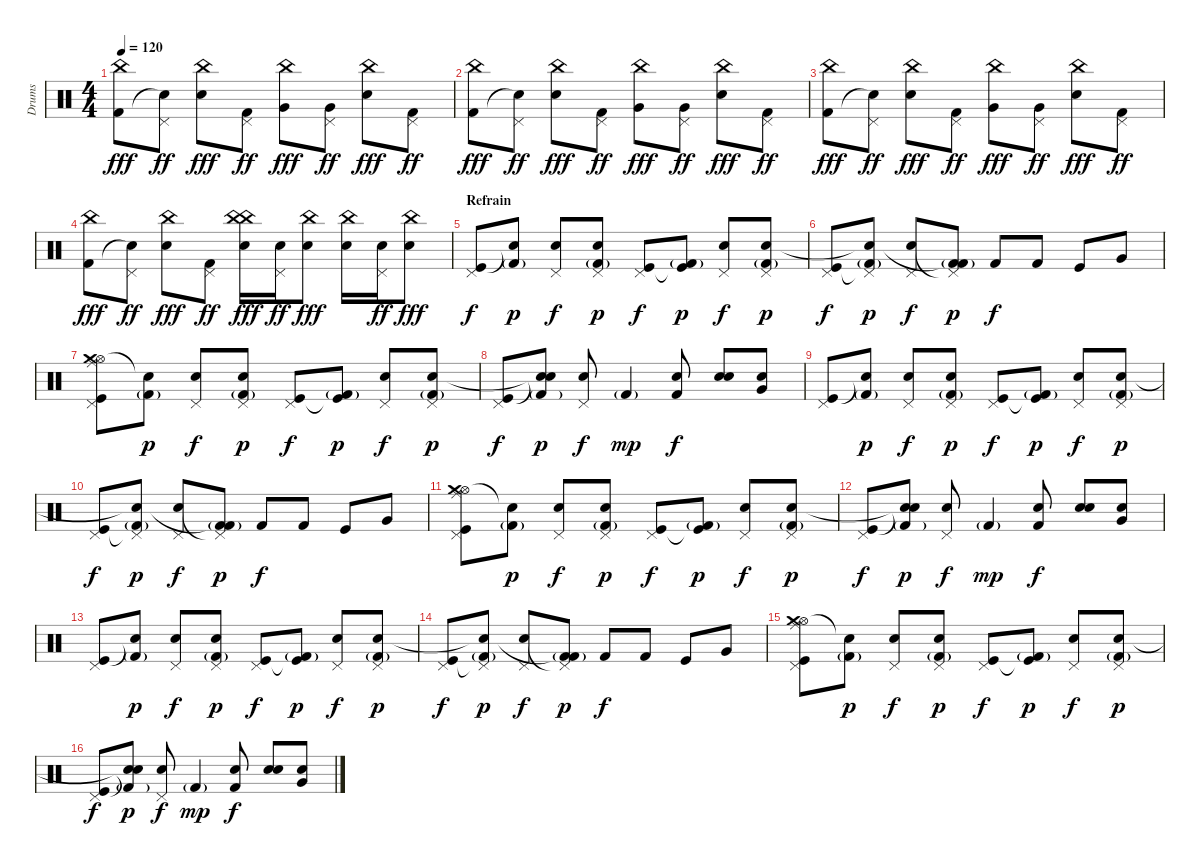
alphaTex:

\track ("Drums" "Drums") {instrument percussion}
\staff {score}
\articulation defaults
\ts (4 4)
\tempo 120
\clef neutral
\ks c
("China (hit)" "Kick (hit) 2").8{dy fff} ("Pedal Hi-Hat (hit)" "Snare (hit) 2"{t}).8{dy ff} ("China (hit)" "Snare (hit) 2").8{dy fff} ("Pedal Hi-Hat (hit)" "Kick (hit) 2").8{dy ff} ("China (hit)" "Very Low Tom (hit)").8{dy fff} ("Pedal Hi-Hat (hit)" "Very Low Tom (hit)").8{dy ff} ("China (hit)" "Snare (hit) 2").8{dy fff} ("Pedal Hi-Hat (hit)" "Kick (hit) 2").8{dy ff} |
("China (hit)" "Kick (hit) 2").8{dy fff} ("Pedal Hi-Hat (hit)" "Snare (hit) 2"{t}).8{dy ff} ("China (hit)" "Snare (hit) 2").8{dy fff} ("Pedal Hi-Hat (hit)" "Kick (hit) 2").8{dy ff} ("China (hit)" "Very Low Tom (hit)").8{dy fff} ("Pedal Hi-Hat (hit)" "Very Low Tom (hit)").8{dy ff} ("China (hit)" "Snare (hit) 2").8{dy fff} ("Pedal Hi-Hat (hit)" "Kick (hit) 2").8{dy ff} |
("China (hit)" "Kick (hit) 2").8{dy fff} ("Pedal Hi-Hat (hit)" "Snare (hit) 2"{t}).8{dy ff} ("China (hit)" "Snare (hit) 2").8{dy fff} ("Pedal Hi-Hat (hit)" "Kick (hit) 2").8{dy ff} ("China (hit)" "Very Low Tom (hit)").8{dy fff} ("Pedal Hi-Hat (hit)" "Very Low Tom (hit)").8{dy ff} ("China (hit)" "Snare (hit) 2").8{dy fff} ("Pedal Hi-Hat (hit)" "Kick (hit) 2").8{dy ff} |
("China (hit)" "Kick (hit) 2").8{dy fff} ("Pedal Hi-Hat (hit)" "Snare (hit) 2"{t}).8{dy ff} ("China (hit)" "Snare (hit) 2").8{dy fff} ("Pedal Hi-Hat (hit)" "Kick (hit) 2").8{dy ff} ("China (hit)" "China (hit)" "Snare (hit) 2").16{dy fff} ("Pedal Hi-Hat (hit)" "Snare (hit) 2").16{dy ff} ("China (hit)" "Snare (hit) 2").8{dy fff} ("China (hit)" "Snare (hit) 2").16 ("Pedal Hi-Hat (hit)" "Snare (hit) 2").16{dy ff} ("China (hit)" "Snare (hit) 2").8{dy fff} |
\section ("" "Refrain")
("Pedal Hi-Hat (hit)" "Kick (hit)").8{dy f} ("Kick (hit) 2"{g} "Snare (hit) 2"{t}).8{dy p} ("Pedal Hi-Hat (hit)" "Snare (hit) 2").8{dy f} ("Kick (hit) 2"{g} "Pedal Hi-Hat (hit)" "Snare (hit) 2").8{dy p} ("Pedal Hi-Hat (hit)" "Kick (hit)").8{dy f} ("Kick (hit) 2"{g} "Kick (hit)"{t}).8{dy p} ("Pedal Hi-Hat (hit)" "Snare (hit) 2").8{dy f} ("Kick (hit) 2"{g} "Pedal Hi-Hat (hit)" "Snare (hit) 2").8{dy p} |
("Pedal Hi-Hat (hit)" "Kick (hit)").8{dy f} ("Kick (hit) 2"{g} "Pedal Hi-Hat (hit)"{t} "Snare (hit) 2"{t}).8{dy p} ("Pedal Hi-Hat (hit)" "Snare (hit) 2").8{dy f} ("Kick (hit) 2"{g} "Pedal Hi-Hat (hit)"{t} "Kick (hit) 2"{t}).8{dy p} "Kick (hit) 2".8{dy f} "Kick (hit) 2".8 "Kick (hit)".8 "Very Low Tom (hit)".8 |
("Ride (middle)" "Hi-Hat (open)" "Crash medium (hit)" "Pedal Hi-Hat (hit)" "Kick (hit)").8 ("Kick (hit) 2"{g} "Snare (hit) 2"{t}).8{dy p} ("Pedal Hi-Hat (hit)" "Snare (hit) 2").8{dy f} ("Kick (hit) 2"{g} "Pedal Hi-Hat (hit)" "Snare (hit) 2").8{dy p} ("Pedal Hi-Hat (hit)" "Kick (hit)").8{dy f} ("Kick (hit) 2"{g} "Kick (hit)"{t}).8{dy p} ("Pedal Hi-Hat (hit)" "Snare (hit) 2").8{dy f} ("Kick (hit) 2"{g} "Pedal Hi-Hat (hit)" "Snare (hit) 2").8{dy p} |
("Pedal Hi-Hat (hit)" "Kick (hit)").8{dy f} ("Kick (hit) 2"{g} "Snare (hit)"{t} "Snare (hit)"{t}).8{dy p} ("Pedal Hi-Hat (hit)" "Snare (hit) 2").8{dy f} "Kick (hit) 2"{g}.4{dy mp} ("Kick (hit) 2" "Snare (hit) 2").8{dy f} ("Electric Snare (hit)" "Snare (hit) 2").8 ("Very Low Tom (hit)" "Snare (hit) 2").8 |
("Pedal Hi-Hat (hit)" "Kick (hit)").8 ("Kick (hit) 2"{g} "Snare (hit) 2"{t}).8{dy p} ("Pedal Hi-Hat (hit)" "Snare (hit) 2").8{dy f} ("Kick (hit) 2"{g} "Pedal Hi-Hat (hit)" "Snare (hit) 2").8{dy p} ("Pedal Hi-Hat (hit)" "Kick (hit)").8{dy f} ("Kick (hit) 2"{g} "Kick (hit)"{t}).8{dy p} ("Pedal Hi-Hat (hit)" "Snare (hit) 2").8{dy f} ("Kick (hit) 2"{g} "Pedal Hi-Hat (hit)" "Snare (hit) 2").8{dy p} |
("Pedal Hi-Hat (hit)" "Kick (hit)").8{dy f} ("Kick (hit) 2"{g} "Pedal Hi-Hat (hit)"{t} "Snare (hit) 2"{t}).8{dy p} ("Pedal Hi-Hat (hit)" "Snare (hit) 2").8{dy f} ("Kick (hit) 2"{g} "Pedal Hi-Hat (hit)"{t} "Kick (hit) 2"{t}).8{dy p} "Kick (hit) 2".8{dy f} "Kick (hit) 2".8 "Kick (hit)".8 "Very Low Tom (hit)".8 |
("Ride (middle)" "Hi-Hat (open)" "Crash medium (hit)" "Pedal Hi-Hat (hit)" "Kick (hit)").8 ("Kick (hit) 2"{g} "Snare (hit) 2"{t}).8{dy p} ("Pedal Hi-Hat (hit)" "Snare (hit) 2").8{dy f} ("Kick (hit) 2"{g} "Pedal Hi-Hat (hit)" "Snare (hit) 2").8{dy p} ("Pedal Hi-Hat (hit)" "Kick (hit)").8{dy f} ("Kick (hit) 2"{g} "Kick (hit)"{t}).8{dy p} ("Pedal Hi-Hat (hit)" "Snare (hit) 2").8{dy f} ("Kick (hit) 2"{g} "Pedal Hi-Hat (hit)" "Snare (hit) 2").8{dy p} |
("Pedal Hi-Hat (hit)" "Kick (hit)").8{dy f} ("Kick (hit) 2"{g} "Snare (hit)"{t} "Snare (hit)"{t}).8{dy p} ("Pedal Hi-Hat (hit)" "Snare (hit) 2").8{dy f} "Kick (hit) 2"{g}.4{dy mp} ("Kick (hit) 2" "Snare (hit) 2").8{dy f} ("Electric Snare (hit)" "Snare (hit) 2").8 ("Very Low Tom (hit)" "Snare (hit) 2").8 |
("Pedal Hi-Hat (hit)" "Kick (hit)").8 ("Kick (hit) 2"{g} "Snare (hit) 2"{t}).8{dy p} ("Pedal Hi-Hat (hit)" "Snare (hit) 2").8{dy f} ("Kick (hit) 2"{g} "Pedal Hi-Hat (hit)" "Snare (hit) 2").8{dy p} ("Pedal Hi-Hat (hit)" "Kick (hit)").8{dy f} ("Kick (hit) 2"{g} "Kick (hit)"{t}).8{dy p} ("Pedal Hi-Hat (hit)" "Snare (hit) 2").8{dy f} ("Kick (hit) 2"{g} "Pedal Hi-Hat (hit)" "Snare (hit) 2").8{dy p} |
("Pedal Hi-Hat (hit)" "Kick (hit)").8{dy f} ("Kick (hit) 2"{g} "Pedal Hi-Hat (hit)"{t} "Snare (hit) 2"{t}).8{dy p} ("Pedal Hi-Hat (hit)" "Snare (hit) 2").8{dy f} ("Kick (hit) 2"{g} "Pedal Hi-Hat (hit)"{t} "Kick (hit) 2"{t}).8{dy p} "Kick (hit) 2".8{dy f} "Kick (hit) 2".8 "Kick (hit)".8 "Very Low Tom (hit)".8 |
("Ride (middle)" "Hi-Hat (open)" "Crash medium (hit)" "Pedal Hi-Hat (hit)" "Kick (hit)").8 ("Kick (hit) 2"{g} "Snare (hit) 2"{t}).8{dy p} ("Pedal Hi-Hat (hit)" "Snare (hit) 2").8{dy f} ("Kick (hit) 2"{g} "Pedal Hi-Hat (hit)" "Snare (hit) 2").8{dy p} ("Pedal Hi-Hat (hit)" "Kick (hit)").8{dy f} ("Kick (hit) 2"{g} "Kick (hit)"{t}).8{dy p} ("Pedal Hi-Hat (hit)" "Snare (hit) 2").8{dy f} ("Kick (hit) 2"{g} "Pedal Hi-Hat (hit)" "Snare (hit) 2").8{dy p} |
("Pedal Hi-Hat (hit)" "Kick (hit)").8{dy f} ("Kick (hit) 2"{g} "Snare (hit)"{t} "Snare (hit)"{t}).8{dy p} ("Pedal Hi-Hat (hit)" "Snare (hit) 2").8{dy f} "Kick (hit) 2"{g}.4{dy mp} ("Kick (hit) 2" "Snare (hit) 2").8{dy f} ("Electric Snare (hit)" "Snare (hit) 2").8 ("Very Low Tom (hit)" "Snare (hit) 2").8
